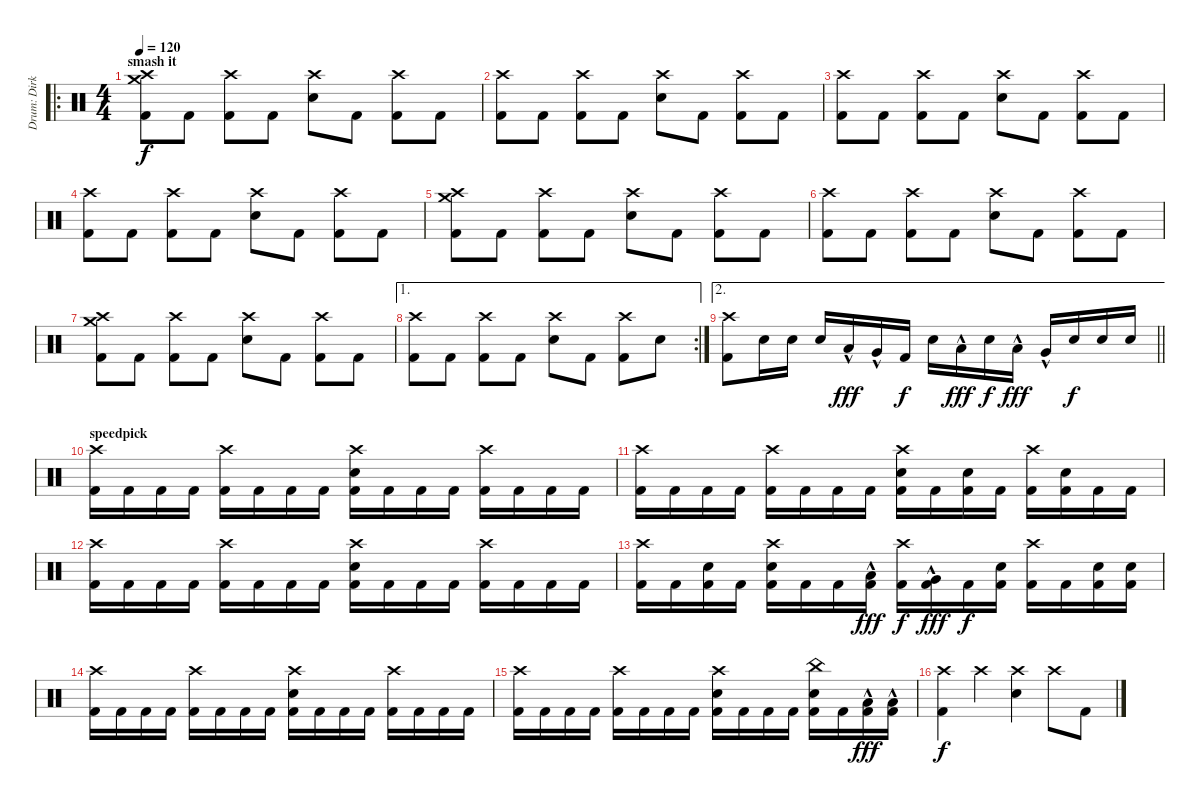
\track ("Drum: Dirk" "Drum: Dirk") {instrument percussion}
\staff {score}
\articulation defaults
\ro
\ts (4 4)
\section ("" "smash it")
\tempo 120
\clef neutral
\ks c
("Crash high (hit)" "Crash medium (hit)" "Kick (hit) 2").8{dy f} "Kick (hit) 2".8 ("Crash high (hit)" "Kick (hit) 2").8 "Kick (hit) 2".8 ("Crash high (hit)" "Electric Snare (hit)").8 "Kick (hit) 2".8 ("Crash high (hit)" "Kick (hit) 2").8 "Kick (hit) 2".8 |
("Crash high (hit)" "Kick (hit) 2").8 "Kick (hit) 2".8 ("Crash high (hit)" "Kick (hit) 2").8 "Kick (hit) 2".8 ("Crash high (hit)" "Electric Snare (hit)").8 "Kick (hit) 2".8 ("Crash high (hit)" "Kick (hit) 2").8 "Kick (hit) 2".8 |
("Crash high (hit)" "Kick (hit) 2").8 "Kick (hit) 2".8 ("Crash high (hit)" "Kick (hit) 2").8 "Kick (hit) 2".8 ("Crash high (hit)" "Electric Snare (hit)").8 "Kick (hit) 2".8 ("Crash high (hit)" "Kick (hit) 2").8 "Kick (hit) 2".8 |
("Crash high (hit)" "Kick (hit) 2").8 "Kick (hit) 2".8 ("Crash high (hit)" "Kick (hit) 2").8 "Kick (hit) 2".8 ("Crash high (hit)" "Electric Snare (hit)").8 "Kick (hit) 2".8 ("Crash high (hit)" "Kick (hit) 2").8 "Kick (hit) 2".8 |
("Crash high (hit)" "Crash medium (hit)" "Kick (hit) 2").8 "Kick (hit) 2".8 ("Crash high (hit)" "Kick (hit) 2").8 "Kick (hit) 2".8 ("Crash high (hit)" "Electric Snare (hit)").8 "Kick (hit) 2".8 ("Crash high (hit)" "Kick (hit) 2").8 "Kick (hit) 2".8 |
("Crash high (hit)" "Kick (hit) 2").8 "Kick (hit) 2".8 ("Crash high (hit)" "Kick (hit) 2").8 "Kick (hit) 2".8 ("Crash high (hit)" "Electric Snare (hit)").8 "Kick (hit) 2".8 ("Crash high (hit)" "Kick (hit) 2").8 "Kick (hit) 2".8 |
("Crash high (hit)" "Crash medium (hit)" "Kick (hit) 2").8 "Kick (hit) 2".8 ("Crash high (hit)" "Kick (hit) 2").8 "Kick (hit) 2".8 ("Crash high (hit)" "Electric Snare (hit)").8 "Kick (hit) 2".8 ("Crash high (hit)" "Kick (hit) 2").8 "Kick (hit) 2".8 |
\ae 1
\rc 2
("Crash high (hit)" "Kick (hit) 2").8 "Kick (hit) 2".8 ("Crash high (hit)" "Kick (hit) 2").8 "Kick (hit) 2".8 ("Crash high (hit)" "Electric Snare (hit)").8 "Kick (hit) 2".8 ("Crash high (hit)" "Kick (hit) 2").8 "Electric Snare (hit)".8 |
\ae 2
\barLineRight lightlight
("Crash high (hit)" "Kick (hit) 2").8 "Electric Snare (hit)".16 "Electric Snare (hit)".16 "Electric Snare (hit)".16 "Low Tom (hit)"{hac}.16{dy fff} "Very Low Tom (hit)"{hac}.16 "Kick (hit) 2".16{dy f} "Electric Snare (hit)".16 "Low Tom (hit)"{hac}.16{dy fff} "Electric Snare (hit)".16{dy f} "Low Tom (hit)"{hac}.16{dy fff} "Very Low Tom (hit)"{hac}.16 "Electric Snare (hit)".16{dy f} "Electric Snare (hit)".16 "Electric Snare (hit)".16 |
\section ("" "speedpick")
("Crash high (hit)" "Kick (hit) 2").16 "Kick (hit) 2".16 "Kick (hit) 2".16 "Kick (hit) 2".16 ("Crash high (hit)" "Kick (hit) 2").16 "Kick (hit) 2".16 "Kick (hit) 2".16 "Kick (hit) 2".16 ("Crash high (hit)" "Electric Snare (hit)" "Kick (hit) 2").16 "Kick (hit) 2".16 "Kick (hit) 2".16 "Kick (hit) 2".16 ("Crash high (hit)" "Kick (hit) 2").16 "Kick (hit) 2".16 "Kick (hit) 2".16 "Kick (hit) 2".16 |
("Crash high (hit)" "Kick (hit) 2").16 "Kick (hit) 2".16 "Kick (hit) 2".16 "Kick (hit) 2".16 ("Crash high (hit)" "Kick (hit) 2").16 "Kick (hit) 2".16 "Kick (hit) 2".16 "Kick (hit) 2".16 ("Crash high (hit)" "Electric Snare (hit)" "Kick (hit) 2").16 "Kick (hit) 2".16 ("Electric Snare (hit)" "Kick (hit) 2").16 "Kick (hit) 2".16 ("Crash high (hit)" "Kick (hit) 2").16 ("Electric Snare (hit)" "Kick (hit) 2").16 "Kick (hit) 2".16 "Kick (hit) 2".16 |
("Crash high (hit)" "Kick (hit) 2").16 "Kick (hit) 2".16 "Kick (hit) 2".16 "Kick (hit) 2".16 ("Crash high (hit)" "Kick (hit) 2").16 "Kick (hit) 2".16 "Kick (hit) 2".16 "Kick (hit) 2".16 ("Crash high (hit)" "Electric Snare (hit)" "Kick (hit) 2").16 "Kick (hit) 2".16 "Kick (hit) 2".16 "Kick (hit) 2".16 ("Crash high (hit)" "Kick (hit) 2").16 "Kick (hit) 2".16 "Kick (hit) 2".16 "Kick (hit) 2".16 |
("Crash high (hit)" "Kick (hit) 2").16 "Kick (hit) 2".16 ("Electric Snare (hit)" "Kick (hit) 2").16 "Kick (hit) 2".16 ("Crash high (hit)" "Electric Snare (hit)" "Kick (hit) 2").16 "Kick (hit) 2".16 "Kick (hit) 2".16 ("Low Tom (hit)"{hac} "Kick (hit) 2").16{dy fff} ("Crash high (hit)" "Kick (hit) 2").16{dy f} ("Very Low Tom (hit)"{hac} "Kick (hit) 2").16{dy fff} "Kick (hit) 2".16{dy f} ("Electric Snare (hit)" "Kick (hit) 2").16 ("Crash high (hit)" "Kick (hit) 2").16 "Kick (hit) 2".16 ("Electric Snare (hit)" "Kick (hit) 2").16 ("Electric Snare (hit)" "Kick (hit) 2").16 |
("Crash high (hit)" "Kick (hit) 2").16 "Kick (hit) 2".16 "Kick (hit) 2".16 "Kick (hit) 2".16 ("Crash high (hit)" "Kick (hit) 2").16 "Kick (hit) 2".16 "Kick (hit) 2".16 "Kick (hit) 2".16 ("Crash high (hit)" "Electric Snare (hit)" "Kick (hit) 2").16 "Kick (hit) 2".16 "Kick (hit) 2".16 "Kick (hit) 2".16 ("Crash high (hit)" "Kick (hit) 2").16 "Kick (hit) 2".16 "Kick (hit) 2".16 "Kick (hit) 2".16 |
("Crash high (hit)" "Kick (hit) 2").16 "Kick (hit) 2".16 "Kick (hit) 2".16 "Kick (hit) 2".16 ("Crash high (hit)" "Kick (hit) 2").16 "Kick (hit) 2".16 "Kick (hit) 2".16 "Kick (hit) 2".16 ("Crash high (hit)" "Electric Snare (hit)" "Kick (hit) 2").16 "Kick (hit) 2".16 "Kick (hit) 2".16 "Kick (hit) 2".16 ("China (hit)" "Electric Snare (hit)" "Kick (hit) 2").16 "Kick (hit) 2".16 ("Low Tom (hit)"{hac} "Kick (hit) 2").16{dy fff} ("Low Tom (hit)"{hac} "Kick (hit) 2").16 |
("Crash high (hit)" "Kick (hit) 2").4{dy f} "Crash high (hit)".4 ("Crash high (hit)" "Electric Snare (hit)").4 "Crash high (hit)".8 "Kick (hit) 2".8
